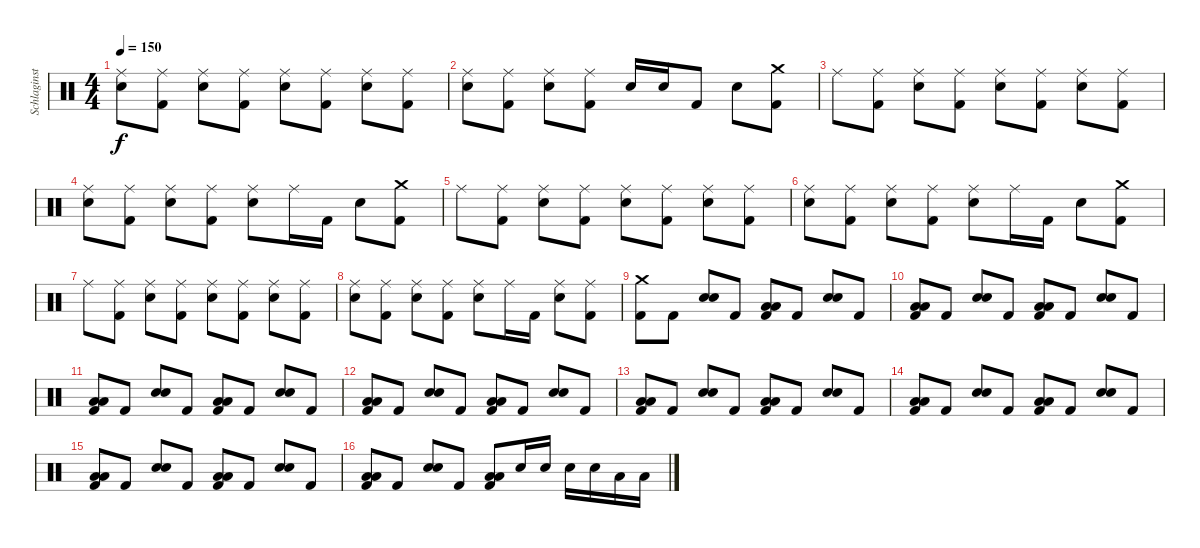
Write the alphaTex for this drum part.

\track ("Schlaginstrumente - Auswahl" "Schlaginst") {instrument percussion}
\staff {score}
\articulation defaults
\ts (4 4)
\tempo 150
\clef neutral
\ks c
("Ride (middle)" "Snare (hit) 2").8{dy f} ("Ride (middle)" "Kick (hit) 2").8 ("Ride (middle)" "Snare (hit) 2").8 ("Ride (middle)" "Kick (hit) 2").8 ("Ride (middle)" "Snare (hit) 2").8 ("Ride (middle)" "Kick (hit) 2").8 ("Ride (middle)" "Snare (hit) 2").8 ("Ride (middle)" "Kick (hit) 2").8 |
("Ride (middle)" "Snare (hit) 2").8 ("Ride (middle)" "Kick (hit) 2").8 ("Ride (middle)" "Snare (hit) 2").8 ("Ride (middle)" "Kick (hit) 2").8 "Snare (hit) 2".16 "Snare (hit) 2".16 "Kick (hit) 2".8 "Snare (hit) 2".8 ("Crash medium (hit)" "Kick (hit) 2").8 |
"Ride (middle)".8 ("Ride (middle)" "Kick (hit) 2").8 ("Ride (middle)" "Snare (hit) 2").8 ("Ride (middle)" "Kick (hit) 2").8 ("Ride (middle)" "Snare (hit) 2").8 ("Ride (middle)" "Kick (hit) 2").8 ("Ride (middle)" "Snare (hit) 2").8 ("Ride (middle)" "Kick (hit) 2").8 |
("Ride (middle)" "Snare (hit) 2").8 ("Ride (middle)" "Kick (hit) 2").8 ("Ride (middle)" "Snare (hit) 2").8 ("Ride (middle)" "Kick (hit) 2").8 ("Ride (middle)" "Snare (hit) 2").8 "Ride (middle)".16 "Kick (hit) 2".16 "Snare (hit) 2".8 ("Crash medium (hit)" "Kick (hit) 2").8 |
"Ride (middle)".8 ("Ride (middle)" "Kick (hit) 2").8 ("Ride (middle)" "Snare (hit) 2").8 ("Ride (middle)" "Kick (hit) 2").8 ("Ride (middle)" "Snare (hit) 2").8 ("Ride (middle)" "Kick (hit) 2").8 ("Ride (middle)" "Snare (hit) 2").8 ("Ride (middle)" "Kick (hit) 2").8 |
("Ride (middle)" "Snare (hit) 2").8 ("Ride (middle)" "Kick (hit) 2").8 ("Ride (middle)" "Snare (hit) 2").8 ("Ride (middle)" "Kick (hit) 2").8 ("Ride (middle)" "Snare (hit) 2").8 "Ride (middle)".16 "Kick (hit) 2".16 "Snare (hit) 2".8 ("Crash medium (hit)" "Kick (hit) 2").8 |
"Ride (middle)".8 ("Ride (middle)" "Kick (hit) 2").8 ("Ride (middle)" "Snare (hit) 2").8 ("Ride (middle)" "Kick (hit) 2").8 ("Ride (middle)" "Snare (hit) 2").8 ("Ride (middle)" "Kick (hit) 2").8 ("Ride (middle)" "Snare (hit) 2").8 ("Ride (middle)" "Kick (hit) 2").8 |
("Ride (middle)" "Snare (hit) 2").8 ("Ride (middle)" "Kick (hit) 2").8 ("Ride (middle)" "Snare (hit) 2").8 ("Ride (middle)" "Kick (hit) 2").8 ("Ride (middle)" "Snare (hit) 2").8 "Ride (middle)".16 "Kick (hit) 2".16 ("Ride (middle)" "Snare (hit) 2").8 ("Ride (middle)" "Kick (hit) 2").8 |
("Crash medium (hit)" "Kick (hit) 2").8 "Kick (hit) 2".8 ("Snare (hit) 2" "Snare (hit) 2").8{bd 120} "Kick (hit) 2".8 ("Low Tom (hit)" "Low Tom (hit)" "Kick (hit) 2").8 "Kick (hit) 2".8 ("Snare (hit) 2" "Snare (hit) 2").8{bd 120} "Kick (hit) 2".8 |
("Low Tom (hit)" "Low Tom (hit)" "Kick (hit) 2").8 "Kick (hit) 2".8 ("Snare (hit) 2" "Snare (hit) 2").8{bd 120} "Kick (hit) 2".8 ("Low Tom (hit)" "Low Tom (hit)" "Kick (hit) 2").8 "Kick (hit) 2".8 ("Snare (hit) 2" "Snare (hit) 2").8{bd 120} "Kick (hit) 2".8 |
("Low Tom (hit)" "Low Tom (hit)" "Kick (hit) 2").8 "Kick (hit) 2".8 ("Snare (hit) 2" "Snare (hit) 2").8{bd 120} "Kick (hit) 2".8 ("Low Tom (hit)" "Low Tom (hit)" "Kick (hit) 2").8 "Kick (hit) 2".8 ("Snare (hit) 2" "Snare (hit) 2").8{bd 120} "Kick (hit) 2".8 |
("Low Tom (hit)" "Low Tom (hit)" "Kick (hit) 2").8 "Kick (hit) 2".8 ("Snare (hit) 2" "Snare (hit) 2").8{bd 120} "Kick (hit) 2".8 ("Low Tom (hit)" "Low Tom (hit)" "Kick (hit) 2").8 "Kick (hit) 2".8 ("Snare (hit) 2" "Snare (hit) 2").8{bd 120} "Kick (hit) 2".8 |
("Low Tom (hit)" "Low Tom (hit)" "Kick (hit) 2").8 "Kick (hit) 2".8 ("Snare (hit) 2" "Snare (hit) 2").8{bd 120} "Kick (hit) 2".8 ("Low Tom (hit)" "Low Tom (hit)" "Kick (hit) 2").8 "Kick (hit) 2".8 ("Snare (hit) 2" "Snare (hit) 2").8{bd 120} "Kick (hit) 2".8 |
("Low Tom (hit)" "Low Tom (hit)" "Kick (hit) 2").8 "Kick (hit) 2".8 ("Snare (hit) 2" "Snare (hit) 2").8{bd 120} "Kick (hit) 2".8 ("Low Tom (hit)" "Low Tom (hit)" "Kick (hit) 2").8 "Kick (hit) 2".8 ("Snare (hit) 2" "Snare (hit) 2").8{bd 120} "Kick (hit) 2".8 |
("Low Tom (hit)" "Low Tom (hit)" "Kick (hit) 2").8 "Kick (hit) 2".8 ("Snare (hit) 2" "Snare (hit) 2").8{bd 120} "Kick (hit) 2".8 ("Low Tom (hit)" "Low Tom (hit)" "Kick (hit) 2").8 "Kick (hit) 2".8 ("Snare (hit) 2" "Snare (hit) 2").8{bd 120} "Kick (hit) 2".8 |
("Low Tom (hit)" "Low Tom (hit)" "Kick (hit) 2").8 "Kick (hit) 2".8 ("Snare (hit) 2" "Snare (hit) 2").8{bd 120} "Kick (hit) 2".8 ("Low Tom (hit)" "Low Tom (hit)" "Kick (hit) 2").8 "Snare (hit) 2".16 "Snare (hit) 2".16 "Snare (hit) 2".16 "Snare (hit) 2".16 "Low Tom (hit)".16 "Low Tom (hit)".16
